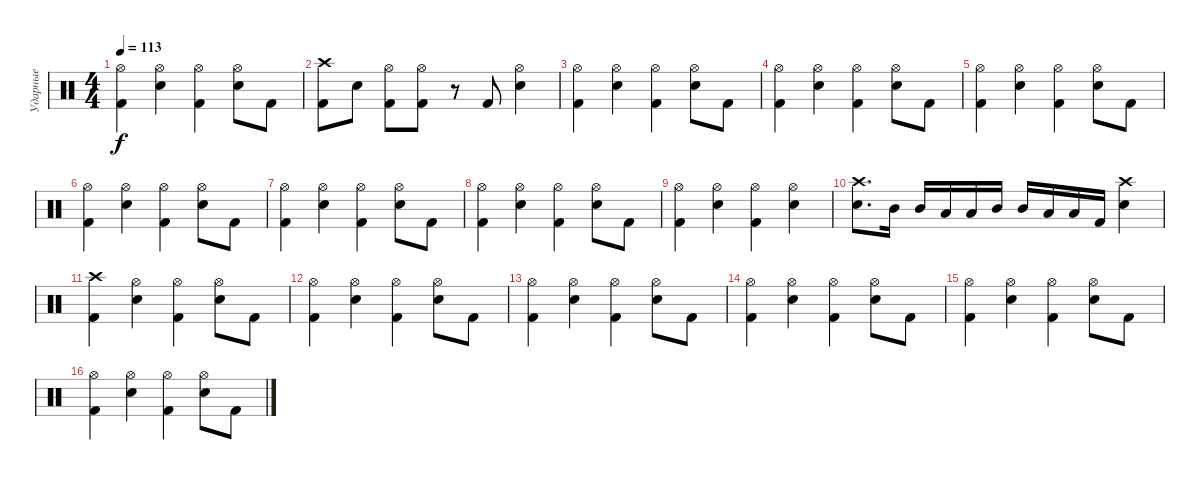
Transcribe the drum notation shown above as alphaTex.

\track ("Ударные" "Ударные") {instrument percussion}
\staff {score}
\articulation defaults
\ts (4 4)
\tempo 113
\clef neutral
\ks c
("Kick (hit) 2" "Hi-Hat (open)").4{dy f} ("Electric Snare (hit)" "Hi-Hat (open)").4 ("Kick (hit) 2" "Hi-Hat (open)").4 ("Electric Snare (hit)" "Hi-Hat (open)").8 "Kick (hit) 2".8 |
("Kick (hit) 2" "Crash high (hit)").8 "Electric Snare (hit)".8 ("Kick (hit) 2" "Hi-Hat (open)").8 ("Kick (hit) 2" "Hi-Hat (open)").8 r.8 "Kick (hit) 2".8 ("Electric Snare (hit)" "Hi-Hat (open)").4 |
("Kick (hit) 2" "Hi-Hat (open)").4 ("Electric Snare (hit)" "Hi-Hat (open)").4 ("Kick (hit) 2" "Hi-Hat (open)").4 ("Electric Snare (hit)" "Hi-Hat (open)").8 "Kick (hit) 2".8 |
("Kick (hit) 2" "Hi-Hat (open)").4 ("Electric Snare (hit)" "Hi-Hat (open)").4 ("Kick (hit) 2" "Hi-Hat (open)").4 ("Electric Snare (hit)" "Hi-Hat (open)").8 "Kick (hit) 2".8 |
("Kick (hit) 2" "Hi-Hat (open)").4 ("Electric Snare (hit)" "Hi-Hat (open)").4 ("Kick (hit) 2" "Hi-Hat (open)").4 ("Electric Snare (hit)" "Hi-Hat (open)").8 "Kick (hit) 2".8 |
("Kick (hit) 2" "Hi-Hat (open)").4 ("Electric Snare (hit)" "Hi-Hat (open)").4 ("Kick (hit) 2" "Hi-Hat (open)").4 ("Electric Snare (hit)" "Hi-Hat (open)").8 "Kick (hit) 2".8 |
("Kick (hit) 2" "Hi-Hat (open)").4 ("Electric Snare (hit)" "Hi-Hat (open)").4 ("Kick (hit) 2" "Hi-Hat (open)").4 ("Electric Snare (hit)" "Hi-Hat (open)").8 "Kick (hit) 2".8 |
("Kick (hit) 2" "Hi-Hat (open)").4 ("Electric Snare (hit)" "Hi-Hat (open)").4 ("Kick (hit) 2" "Hi-Hat (open)").4 ("Electric Snare (hit)" "Hi-Hat (open)").8 "Kick (hit) 2".8 |
("Kick (hit) 2" "Hi-Hat (open)").4 ("Electric Snare (hit)" "Hi-Hat (open)").4 ("Kick (hit) 2" "Hi-Hat (open)").4 ("Electric Snare (hit)" "Hi-Hat (open)").4 |
("Electric Snare (hit)" "Crash high (hit)").8{d} "Mid Tom (hit)".16 "Mid Tom (hit)".16 "Low Tom (hit)".16 "Low Floor Tom (hit)".16 "Mid Tom (hit)".16 "Mid Tom (hit)".16 "Low Tom (hit)".16 "Low Floor Tom (hit)".16 "Kick (hit) 2".16 ("Electric Snare (hit)" "Crash high (hit)").4 |
("Kick (hit) 2" "Crash high (hit)").4 ("Electric Snare (hit)" "Hi-Hat (open)").4 ("Kick (hit) 2" "Hi-Hat (open)").4 ("Electric Snare (hit)" "Hi-Hat (open)").8 "Kick (hit) 2".8 |
("Kick (hit) 2" "Hi-Hat (open)").4 ("Electric Snare (hit)" "Hi-Hat (open)").4 ("Kick (hit) 2" "Hi-Hat (open)").4 ("Electric Snare (hit)" "Hi-Hat (open)").8 "Kick (hit) 2".8 |
("Kick (hit) 2" "Hi-Hat (open)").4 ("Electric Snare (hit)" "Hi-Hat (open)").4 ("Kick (hit) 2" "Hi-Hat (open)").4 ("Electric Snare (hit)" "Hi-Hat (open)").8 "Kick (hit) 2".8 |
("Kick (hit) 2" "Hi-Hat (open)").4 ("Electric Snare (hit)" "Hi-Hat (open)").4 ("Kick (hit) 2" "Hi-Hat (open)").4 ("Electric Snare (hit)" "Hi-Hat (open)").8 "Kick (hit) 2".8 |
("Kick (hit) 2" "Hi-Hat (open)").4 ("Electric Snare (hit)" "Hi-Hat (open)").4 ("Kick (hit) 2" "Hi-Hat (open)").4 ("Electric Snare (hit)" "Hi-Hat (open)").8 "Kick (hit) 2".8 |
("Kick (hit) 2" "Hi-Hat (open)").4 ("Electric Snare (hit)" "Hi-Hat (open)").4 ("Kick (hit) 2" "Hi-Hat (open)").4 ("Electric Snare (hit)" "Hi-Hat (open)").8 "Kick (hit) 2".8
